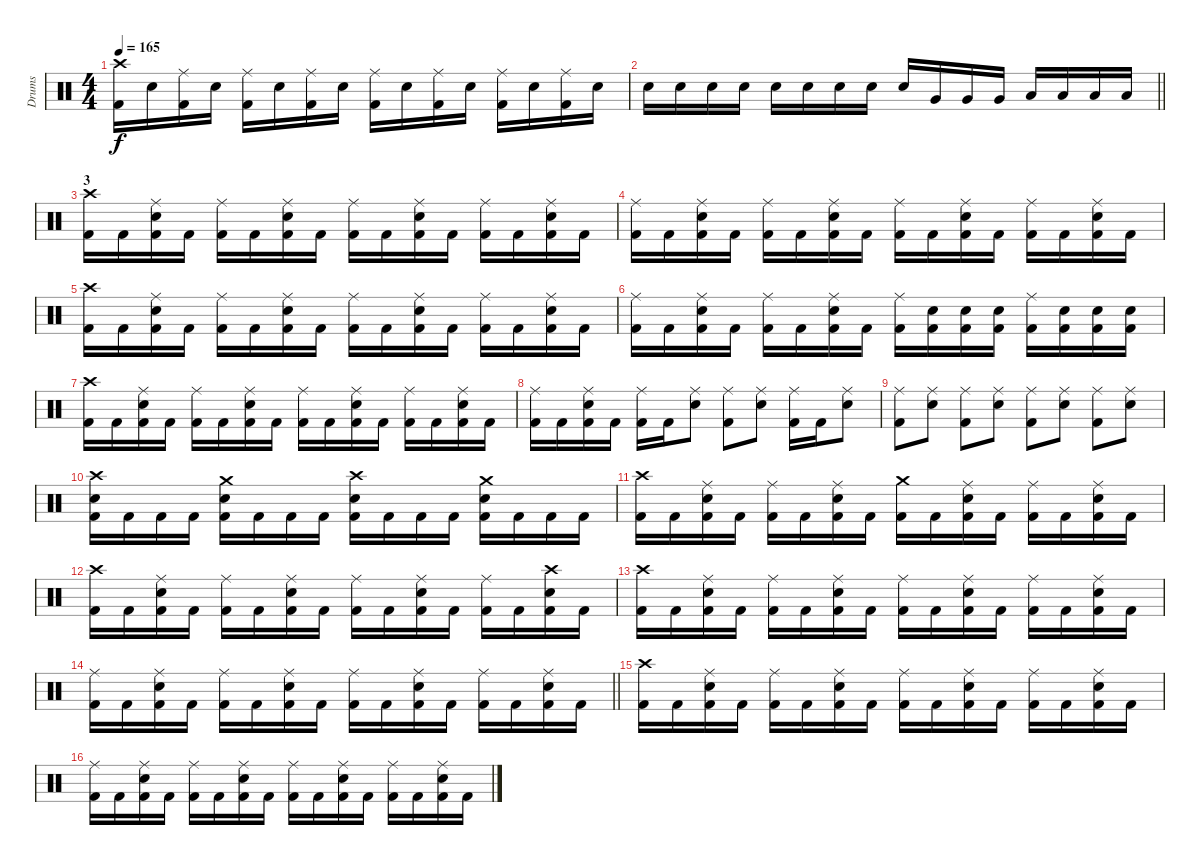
\track ("Drums" "Drums") {instrument percussion}
\staff {score}
\articulation defaults
\ts (4 4)
\tempo 165
\clef neutral
\ks c
("Crash high (hit)" "Kick (hit) 2").16{dy f} "Electric Snare (hit)".16 ("Ride (middle)" "Kick (hit) 2").16 "Electric Snare (hit)".16 ("Ride (middle)" "Kick (hit) 2").16 "Electric Snare (hit)".16 ("Ride (middle)" "Kick (hit) 2").16 "Electric Snare (hit)".16 ("Ride (middle)" "Kick (hit) 2").16 "Electric Snare (hit)".16 ("Ride (middle)" "Kick (hit) 2").16 "Electric Snare (hit)".16 ("Ride (middle)" "Kick (hit) 2").16 "Electric Snare (hit)".16 ("Ride (middle)" "Kick (hit) 2").16 "Electric Snare (hit)".16 |
\barLineRight lightlight "Electric Snare (hit)".16 "Electric Snare (hit)".16 "Electric Snare (hit)".16 "Electric Snare (hit)".16 "Electric Snare (hit)".16 "Electric Snare (hit)".16 "Electric Snare (hit)".16 "Electric Snare (hit)".16 "Electric Snare (hit)".16 "Very Low Tom (hit)".16 "Very Low Tom (hit)".16 "Very Low Tom (hit)".16 "Low Floor Tom (hit)".16 "Low Floor Tom (hit)".16 "Low Floor Tom (hit)".16 "Low Floor Tom (hit)".16
|
\section ("" "3")
("Crash high (hit)" "Kick (hit) 2").16 "Kick (hit) 2".16 ("Ride (middle)" "Electric Snare (hit)" "Kick (hit) 2").16 "Kick (hit) 2".16 ("Ride (middle)" "Kick (hit) 2").16 "Kick (hit) 2".16 ("Ride (middle)" "Electric Snare (hit)" "Kick (hit) 2").16 "Kick (hit) 2".16 ("Ride (middle)" "Kick (hit) 2").16 "Kick (hit) 2".16 ("Ride (middle)" "Electric Snare (hit)" "Kick (hit) 2").16 "Kick (hit) 2".16 ("Ride (middle)" "Kick (hit) 2").16 "Kick (hit) 2".16 ("Ride (middle)" "Electric Snare (hit)" "Kick (hit) 2").16 "Kick (hit) 2".16 |
("Ride (middle)" "Kick (hit) 2").16 "Kick (hit) 2".16 ("Ride (middle)" "Electric Snare (hit)" "Kick (hit) 2").16 "Kick (hit) 2".16 ("Ride (middle)" "Kick (hit) 2").16 "Kick (hit) 2".16 ("Ride (middle)" "Electric Snare (hit)" "Kick (hit) 2").16 "Kick (hit) 2".16 ("Ride (middle)" "Kick (hit) 2").16 "Kick (hit) 2".16 ("Ride (middle)" "Electric Snare (hit)" "Kick (hit) 2").16 "Kick (hit) 2".16 ("Ride (middle)" "Kick (hit) 2").16 "Kick (hit) 2".16 ("Ride (middle)" "Electric Snare (hit)" "Kick (hit) 2").16 "Kick (hit) 2".16 |
("Crash high (hit)" "Kick (hit) 2").16 "Kick (hit) 2".16 ("Ride (middle)" "Electric Snare (hit)" "Kick (hit) 2").16 "Kick (hit) 2".16 ("Ride (middle)" "Kick (hit) 2").16 "Kick (hit) 2".16 ("Ride (middle)" "Electric Snare (hit)" "Kick (hit) 2").16 "Kick (hit) 2".16 ("Ride (middle)" "Kick (hit) 2").16 "Kick (hit) 2".16 ("Ride (middle)" "Electric Snare (hit)" "Kick (hit) 2").16 "Kick (hit) 2".16 ("Ride (middle)" "Kick (hit) 2").16 "Kick (hit) 2".16 ("Ride (middle)" "Electric Snare (hit)" "Kick (hit) 2").16 "Kick (hit) 2".16 |
("Ride (middle)" "Kick (hit) 2").16 "Kick (hit) 2".16 ("Ride (middle)" "Electric Snare (hit)" "Kick (hit) 2").16 "Kick (hit) 2".16 ("Ride (middle)" "Kick (hit) 2").16 "Kick (hit) 2".16 ("Ride (middle)" "Electric Snare (hit)" "Kick (hit) 2").16 "Kick (hit) 2".16 ("Ride (middle)" "Kick (hit) 2").16 ("Electric Snare (hit)" "Kick (hit) 2").16 ("Electric Snare (hit)" "Kick (hit) 2").16 ("Electric Snare (hit)" "Kick (hit) 2").16 ("Ride (middle)" "Kick (hit) 2").16 ("Electric Snare (hit)" "Kick (hit) 2").16 ("Electric Snare (hit)" "Kick (hit) 2").16 ("Electric Snare (hit)" "Kick (hit) 2").16 |
("Crash high (hit)" "Kick (hit) 2").16 "Kick (hit) 2".16 ("Ride (middle)" "Electric Snare (hit)" "Kick (hit) 2").16 "Kick (hit) 2".16 ("Ride (middle)" "Kick (hit) 2").16 "Kick (hit) 2".16 ("Ride (middle)" "Electric Snare (hit)" "Kick (hit) 2").16 "Kick (hit) 2".16 ("Ride (middle)" "Kick (hit) 2").16 "Kick (hit) 2".16 ("Ride (middle)" "Electric Snare (hit)" "Kick (hit) 2").16 "Kick (hit) 2".16 ("Ride (middle)" "Kick (hit) 2").16 "Kick (hit) 2".16 ("Ride (middle)" "Electric Snare (hit)" "Kick (hit) 2").16 "Kick (hit) 2".16 |
("Ride (middle)" "Kick (hit) 2").16 "Kick (hit) 2".16 ("Ride (middle)" "Electric Snare (hit)" "Kick (hit) 2").16 "Kick (hit) 2".16 ("Ride (middle)" "Kick (hit) 2").16 "Kick (hit) 2".16 ("Ride (middle)" "Electric Snare (hit)").8 ("Ride (middle)" "Kick (hit) 2").8 ("Ride (middle)" "Electric Snare (hit)").8 ("Ride (middle)" "Kick (hit) 2").16 "Kick (hit) 2".16 ("Ride (middle)" "Electric Snare (hit)").8 |
("Ride (middle)" "Kick (hit) 2").8 ("Ride (middle)" "Electric Snare (hit)").8 ("Ride (middle)" "Kick (hit) 2").8 ("Ride (middle)" "Electric Snare (hit)").8 ("Ride (middle)" "Kick (hit) 2").8 ("Ride (middle)" "Electric Snare (hit)").8 ("Ride (middle)" "Kick (hit) 2").8 ("Ride (middle)" "Electric Snare (hit)").8 |
("Crash high (hit)" "Electric Snare (hit)" "Kick (hit) 2").16 "Kick (hit) 2".16 "Kick (hit) 2".16 "Kick (hit) 2".16 ("Crash medium (hit)" "Electric Snare (hit)" "Kick (hit) 2").16 "Kick (hit) 2".16 "Kick (hit) 2".16 "Kick (hit) 2".16 ("Crash high (hit)" "Electric Snare (hit)" "Kick (hit) 2").16 "Kick (hit) 2".16 "Kick (hit) 2".16 "Kick (hit) 2".16 ("Crash medium (hit)" "Electric Snare (hit)" "Kick (hit) 2").16 "Kick (hit) 2".16 "Kick (hit) 2".16 "Kick (hit) 2".16 |
("Crash high (hit)" "Kick (hit) 2").16 "Kick (hit) 2".16 ("Ride (middle)" "Electric Snare (hit)" "Kick (hit) 2").16 "Kick (hit) 2".16 ("Ride (middle)" "Kick (hit) 2").16 "Kick (hit) 2".16 ("Ride (middle)" "Electric Snare (hit)" "Kick (hit) 2").16 "Kick (hit) 2".16 ("Crash medium (hit)" "Kick (hit) 2").16 "Kick (hit) 2".16 ("Ride (middle)" "Electric Snare (hit)" "Kick (hit) 2").16 "Kick (hit) 2".16 ("Ride (middle)" "Kick (hit) 2").16 "Kick (hit) 2".16 ("Ride (middle)" "Electric Snare (hit)" "Kick (hit) 2").16 "Kick (hit) 2".16 |
("Crash high (hit)" "Kick (hit) 2").16 "Kick (hit) 2".16 ("Ride (middle)" "Electric Snare (hit)" "Kick (hit) 2").16 "Kick (hit) 2".16 ("Ride (middle)" "Kick (hit) 2").16 "Kick (hit) 2".16 ("Ride (middle)" "Electric Snare (hit)" "Kick (hit) 2").16 "Kick (hit) 2".16 ("Ride (middle)" "Kick (hit) 2").16 "Kick (hit) 2".16 ("Ride (middle)" "Electric Snare (hit)" "Kick (hit) 2").16 "Kick (hit) 2".16 ("Ride (middle)" "Kick (hit) 2").16 "Kick (hit) 2".16 ("Crash high (hit)" "Electric Snare (hit)" "Kick (hit) 2").16 "Kick (hit) 2".16 |
("Crash high (hit)" "Kick (hit) 2").16 "Kick (hit) 2".16 ("Ride (middle)" "Electric Snare (hit)" "Kick (hit) 2").16 "Kick (hit) 2".16 ("Ride (middle)" "Kick (hit) 2").16 "Kick (hit) 2".16 ("Ride (middle)" "Electric Snare (hit)" "Kick (hit) 2").16 "Kick (hit) 2".16 ("Ride (middle)" "Kick (hit) 2").16 "Kick (hit) 2".16 ("Ride (middle)" "Electric Snare (hit)" "Kick (hit) 2").16 "Kick (hit) 2".16 ("Ride (middle)" "Kick (hit) 2").16 "Kick (hit) 2".16 ("Ride (middle)" "Electric Snare (hit)" "Kick (hit) 2").16 "Kick (hit) 2".16 |
\barLineRight lightlight
("Ride (middle)" "Kick (hit) 2").16 "Kick (hit) 2".16 ("Ride (middle)" "Electric Snare (hit)" "Kick (hit) 2").16 "Kick (hit) 2".16 ("Ride (middle)" "Kick (hit) 2").16 "Kick (hit) 2".16 ("Ride (middle)" "Electric Snare (hit)" "Kick (hit) 2").16 "Kick (hit) 2".16 ("Ride (middle)" "Kick (hit) 2").16 "Kick (hit) 2".16 ("Ride (middle)" "Electric Snare (hit)" "Kick (hit) 2").16 "Kick (hit) 2".16 ("Ride (middle)" "Kick (hit) 2").16 "Kick (hit) 2".16 ("Ride (middle)" "Electric Snare (hit)" "Kick (hit) 2").16 "Kick (hit) 2".16 |
("Crash high (hit)" "Kick (hit) 2").16 "Kick (hit) 2".16 ("Ride (middle)" "Electric Snare (hit)" "Kick (hit) 2").16 "Kick (hit) 2".16 ("Ride (middle)" "Kick (hit) 2").16 "Kick (hit) 2".16 ("Ride (middle)" "Electric Snare (hit)" "Kick (hit) 2").16 "Kick (hit) 2".16 ("Ride (middle)" "Kick (hit) 2").16 "Kick (hit) 2".16 ("Ride (middle)" "Electric Snare (hit)" "Kick (hit) 2").16 "Kick (hit) 2".16 ("Ride (middle)" "Kick (hit) 2").16 "Kick (hit) 2".16 ("Ride (middle)" "Electric Snare (hit)" "Kick (hit) 2").16 "Kick (hit) 2".16 |
("Ride (middle)" "Kick (hit) 2").16 "Kick (hit) 2".16 ("Ride (middle)" "Electric Snare (hit)" "Kick (hit) 2").16 "Kick (hit) 2".16 ("Ride (middle)" "Kick (hit) 2").16 "Kick (hit) 2".16 ("Ride (middle)" "Electric Snare (hit)" "Kick (hit) 2").16 "Kick (hit) 2".16 ("Ride (middle)" "Kick (hit) 2").16 "Kick (hit) 2".16 ("Ride (middle)" "Electric Snare (hit)" "Kick (hit) 2").16 "Kick (hit) 2".16 ("Ride (middle)" "Kick (hit) 2").16 "Kick (hit) 2".16 ("Ride (middle)" "Electric Snare (hit)" "Kick (hit) 2").16 "Kick (hit) 2".16
